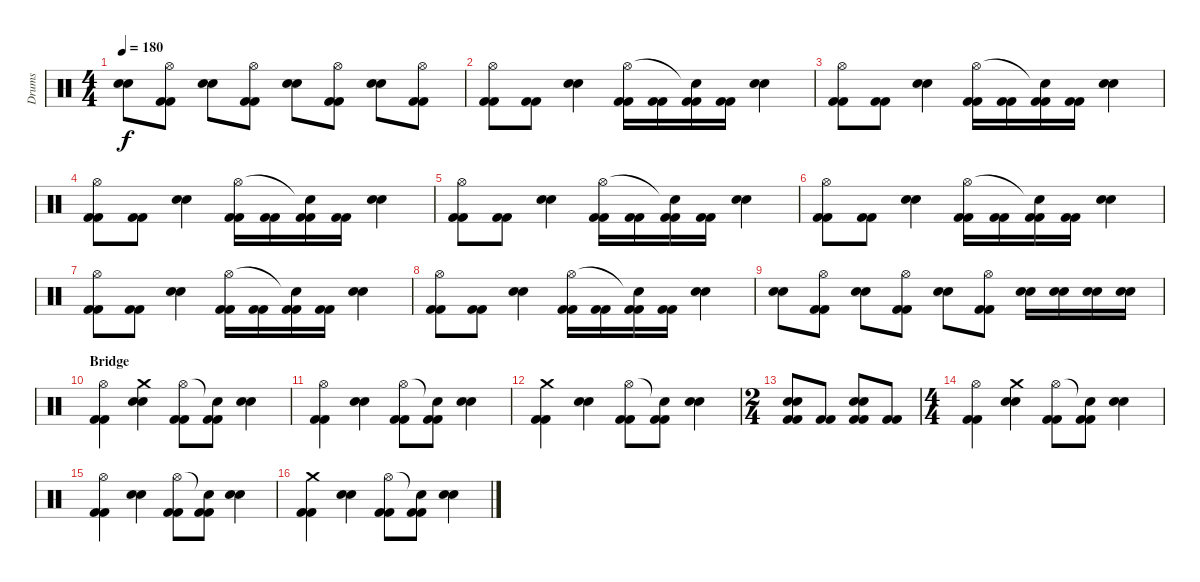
\track ("Drums" "Drums") {instrument percussion}
\staff {score}
\articulation defaults
\ts (4 4)
\tempo 180
\clef neutral
\ks c
("Snare (hit) 2" "Snare (hit) 2").8{dy f} ("Kick (hit) 2" "Kick (hit) 2" "Hi-Hat (open)").8 ("Snare (hit) 2" "Snare (hit) 2").8 ("Kick (hit) 2" "Kick (hit) 2" "Hi-Hat (open)").8 ("Snare (hit) 2" "Snare (hit) 2").8 ("Kick (hit) 2" "Kick (hit) 2" "Hi-Hat (open)").8 ("Snare (hit) 2" "Snare (hit) 2").8 ("Kick (hit) 2" "Kick (hit) 2" "Hi-Hat (open)").8 |
("Kick (hit) 2" "Kick (hit) 2" "Hi-Hat (open)").8 ("Kick (hit) 2" "Kick (hit) 2").8 ("Electric Snare (hit)" "Electric Snare (hit)").4 ("Kick (hit) 2" "Kick (hit) 2" "Hi-Hat (open)").16 ("Kick (hit) 2" "Kick (hit) 2").16 ("Kick (hit) 2" "Kick (hit) 2" "Snare (hit)"{t}).16 ("Kick (hit) 2" "Kick (hit) 2").16 ("Electric Snare (hit)" "Electric Snare (hit)").4 |
("Kick (hit) 2" "Kick (hit) 2" "Hi-Hat (open)").8 ("Kick (hit) 2" "Kick (hit) 2").8 ("Electric Snare (hit)" "Electric Snare (hit)").4 ("Kick (hit) 2" "Kick (hit) 2" "Hi-Hat (open)").16 ("Kick (hit) 2" "Kick (hit) 2").16 ("Kick (hit) 2" "Kick (hit) 2" "Snare (hit)"{t}).16 ("Kick (hit) 2" "Kick (hit) 2").16 ("Electric Snare (hit)" "Electric Snare (hit)").4 |
("Kick (hit) 2" "Kick (hit) 2" "Hi-Hat (open)").8 ("Kick (hit) 2" "Kick (hit) 2").8 ("Electric Snare (hit)" "Electric Snare (hit)").4 ("Kick (hit) 2" "Kick (hit) 2" "Hi-Hat (open)").16 ("Kick (hit) 2" "Kick (hit) 2").16 ("Kick (hit) 2" "Kick (hit) 2" "Snare (hit)"{t}).16 ("Kick (hit) 2" "Kick (hit) 2").16 ("Electric Snare (hit)" "Electric Snare (hit)").4 |
("Kick (hit) 2" "Kick (hit) 2" "Hi-Hat (open)").8 ("Kick (hit) 2" "Kick (hit) 2").8 ("Electric Snare (hit)" "Electric Snare (hit)").4 ("Kick (hit) 2" "Kick (hit) 2" "Hi-Hat (open)").16 ("Kick (hit) 2" "Kick (hit) 2").16 ("Kick (hit) 2" "Kick (hit) 2" "Snare (hit)"{t}).16 ("Kick (hit) 2" "Kick (hit) 2").16 ("Electric Snare (hit)" "Electric Snare (hit)").4 |
("Kick (hit) 2" "Kick (hit) 2" "Hi-Hat (open)").8 ("Kick (hit) 2" "Kick (hit) 2").8 ("Electric Snare (hit)" "Electric Snare (hit)").4 ("Kick (hit) 2" "Kick (hit) 2" "Hi-Hat (open)").16 ("Kick (hit) 2" "Kick (hit) 2").16 ("Kick (hit) 2" "Kick (hit) 2" "Snare (hit)"{t}).16 ("Kick (hit) 2" "Kick (hit) 2").16 ("Electric Snare (hit)" "Electric Snare (hit)").4 |
("Kick (hit) 2" "Kick (hit) 2" "Hi-Hat (open)").8 ("Kick (hit) 2" "Kick (hit) 2").8 ("Electric Snare (hit)" "Electric Snare (hit)").4 ("Kick (hit) 2" "Kick (hit) 2" "Hi-Hat (open)").16 ("Kick (hit) 2" "Kick (hit) 2").16 ("Kick (hit) 2" "Kick (hit) 2" "Snare (hit)"{t}).16 ("Kick (hit) 2" "Kick (hit) 2").16 ("Electric Snare (hit)" "Electric Snare (hit)").4 |
("Kick (hit) 2" "Kick (hit) 2" "Hi-Hat (open)").8 ("Kick (hit) 2" "Kick (hit) 2").8 ("Electric Snare (hit)" "Electric Snare (hit)").4 ("Kick (hit) 2" "Kick (hit) 2" "Hi-Hat (open)").16 ("Kick (hit) 2" "Kick (hit) 2").16 ("Kick (hit) 2" "Kick (hit) 2" "Snare (hit)"{t}).16 ("Kick (hit) 2" "Kick (hit) 2").16 ("Electric Snare (hit)" "Electric Snare (hit)").4 |
("Snare (hit) 2" "Snare (hit) 2").8 ("Kick (hit) 2" "Kick (hit) 2" "Hi-Hat (open)").8 ("Snare (hit) 2" "Snare (hit) 2").8 ("Kick (hit) 2" "Kick (hit) 2" "Hi-Hat (open)").8 ("Snare (hit) 2" "Snare (hit) 2").8 ("Kick (hit) 2" "Kick (hit) 2" "Hi-Hat (open)").8 ("Snare (hit) 2" "Snare (hit) 2").16 ("Snare (hit) 2" "Snare (hit) 2").16 ("Snare (hit) 2" "Snare (hit) 2").16 ("Snare (hit) 2" "Snare (hit) 2").16 |
\section ("" "Bridge")
("Kick (hit) 2" "Kick (hit) 2" "Hi-Hat (open)").4 ("Electric Snare (hit)" "Electric Snare (hit)" "Crash medium (hit)").4 ("Kick (hit) 2" "Kick (hit) 2" "Hi-Hat (open)").8 ("Kick (hit) 2" "Kick (hit) 2" "Snare (hit)"{t}).8 ("Electric Snare (hit)" "Electric Snare (hit)").4 |
("Kick (hit) 2" "Kick (hit) 2" "Hi-Hat (open)").4 ("Electric Snare (hit)" "Electric Snare (hit)").4 ("Kick (hit) 2" "Kick (hit) 2" "Hi-Hat (open)").8 ("Kick (hit) 2" "Kick (hit) 2" "Snare (hit)"{t}).8 ("Electric Snare (hit)" "Electric Snare (hit)").4 |
("Kick (hit) 2" "Kick (hit) 2" "Crash medium (hit)").4 ("Electric Snare (hit)" "Electric Snare (hit)").4 ("Kick (hit) 2" "Kick (hit) 2" "Hi-Hat (open)").8 ("Kick (hit) 2" "Kick (hit) 2" "Snare (hit)"{t}).8 ("Electric Snare (hit)" "Electric Snare (hit)").4 |
\ts (2 4)
("Kick (hit) 2" "Kick (hit) 2" "Electric Snare (hit)" "Electric Snare (hit)").8 ("Kick (hit) 2" "Kick (hit) 2").8 ("Kick (hit) 2" "Kick (hit) 2" "Electric Snare (hit)" "Electric Snare (hit)").8 ("Kick (hit) 2" "Kick (hit) 2").8 |
\ts (4 4)
("Kick (hit) 2" "Kick (hit) 2" "Hi-Hat (open)").4 ("Electric Snare (hit)" "Electric Snare (hit)" "Crash medium (hit)").4 ("Kick (hit) 2" "Kick (hit) 2" "Hi-Hat (open)").8 ("Kick (hit) 2" "Kick (hit) 2" "Snare (hit)"{t}).8 ("Electric Snare (hit)" "Electric Snare (hit)").4 |
("Kick (hit) 2" "Kick (hit) 2" "Hi-Hat (open)").4 ("Electric Snare (hit)" "Electric Snare (hit)").4 ("Kick (hit) 2" "Kick (hit) 2" "Hi-Hat (open)").8 ("Kick (hit) 2" "Kick (hit) 2" "Snare (hit)"{t}).8 ("Electric Snare (hit)" "Electric Snare (hit)").4 |
("Kick (hit) 2" "Kick (hit) 2" "Crash medium (hit)").4 ("Electric Snare (hit)" "Electric Snare (hit)").4 ("Kick (hit) 2" "Kick (hit) 2" "Hi-Hat (open)").8 ("Kick (hit) 2" "Kick (hit) 2" "Snare (hit)"{t}).8 ("Electric Snare (hit)" "Electric Snare (hit)").4
